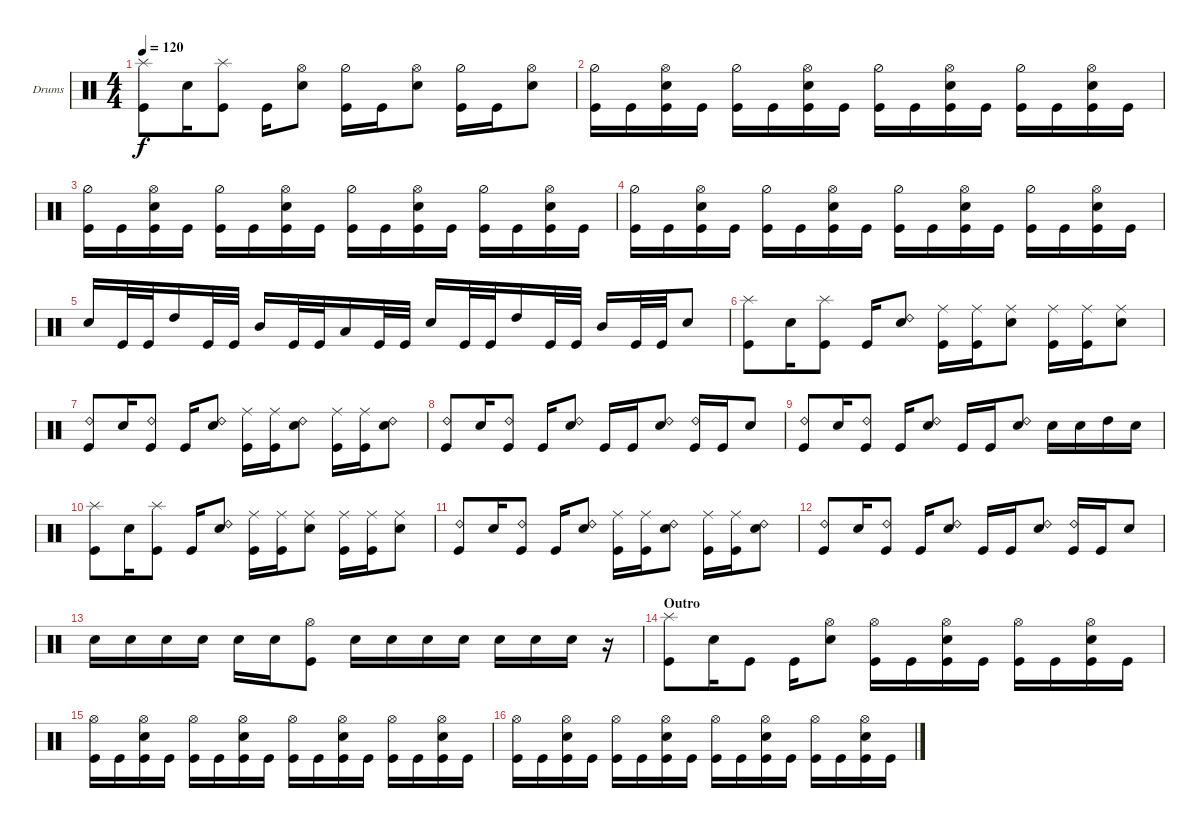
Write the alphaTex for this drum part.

\bracketExtendMode groupsimilarinstruments
\firstSystemTrackNameOrientation horizontal
\otherSystemsTrackNameOrientation horizontal
\track ("Drumkit" "Drums") {instrument percussion}
\staff {score}
\articulation defaults
\ts (4 4)
\tempo 120
\clef neutral
\ks c
("Kick (hit)" "Splash (hit)").8{dy f} "Snare (hit) 2".16 ("Kick (hit)" "Splash (hit)").8 "Kick (hit)".16 ("Snare (hit) 2" "Hi-Hat (open)").8 ("Kick (hit)" "Hi-Hat (half)").16 "Kick (hit)".16 ("Snare (hit) 2" "Hi-Hat (open)").8 ("Kick (hit)" "Hi-Hat (half)").16 "Kick (hit)".16 ("Snare (hit) 2" "Hi-Hat (open)").8 |
("Kick (hit)" "Hi-Hat (half)").16 "Kick (hit)".16 ("Snare (hit) 2" "Hi-Hat (open)" "Kick (hit)").16 "Kick (hit)".16 ("Kick (hit)" "Hi-Hat (half)").16 "Kick (hit)".16 ("Snare (hit) 2" "Hi-Hat (open)" "Kick (hit)").16 "Kick (hit)".16 ("Kick (hit)" "Hi-Hat (half)").16 "Kick (hit)".16 ("Snare (hit) 2" "Hi-Hat (open)" "Kick (hit)").16 "Kick (hit)".16 ("Kick (hit)" "Hi-Hat (half)").16 "Kick (hit)".16 ("Snare (hit) 2" "Hi-Hat (open)" "Kick (hit)").16 "Kick (hit)".16 |
("Kick (hit)" "Hi-Hat (half)").16 "Kick (hit)".16 ("Snare (hit) 2" "Hi-Hat (open)" "Kick (hit)").16 "Kick (hit)".16 ("Kick (hit)" "Hi-Hat (half)").16 "Kick (hit)".16 ("Snare (hit) 2" "Hi-Hat (open)" "Kick (hit)").16 "Kick (hit)".16 ("Kick (hit)" "Hi-Hat (half)").16 "Kick (hit)".16 ("Snare (hit) 2" "Hi-Hat (open)" "Kick (hit)").16 "Kick (hit)".16 ("Kick (hit)" "Hi-Hat (half)").16 "Kick (hit)".16 ("Snare (hit) 2" "Hi-Hat (open)" "Kick (hit)").16 "Kick (hit)".16 |
("Kick (hit)" "Hi-Hat (half)").16 "Kick (hit)".16 ("Snare (hit) 2" "Hi-Hat (open)" "Kick (hit)").16 "Kick (hit)".16 ("Kick (hit)" "Hi-Hat (half)").16 "Kick (hit)".16 ("Snare (hit) 2" "Hi-Hat (open)" "Kick (hit)").16 "Kick (hit)".16 ("Kick (hit)" "Hi-Hat (half)").16 "Kick (hit)".16 ("Snare (hit) 2" "Hi-Hat (open)" "Kick (hit)").16 "Kick (hit)".16 ("Kick (hit)" "Hi-Hat (half)").16 "Kick (hit)".16 ("Snare (hit) 2" "Hi-Hat (open)" "Kick (hit)").16 "Kick (hit)".16 |
"Snare (hit) 2".16 "Kick (hit)".32 "Kick (hit)".32 "High Tom (hit)".16 "Kick (hit)".32 "Kick (hit)".32 "Mid Tom (hit)".16 "Kick (hit)".32 "Kick (hit)".32 "Low Tom (hit)".16 "Kick (hit)".32 "Kick (hit)".32 "Snare (hit) 2".16 "Kick (hit)".32 "Kick (hit)".32 "High Tom (hit)".16 "Kick (hit)".32 "Kick (hit)".32 "Mid Tom (hit)".16 "Kick (hit)".32 "Kick (hit)".32 "Snare (hit) 2".8 |
("Kick (hit)" "Splash (hit)").8 "Snare (hit) 2".16 ("Kick (hit)" "Splash (hit)").8 "Kick (hit)".16 ("Snare (hit) 2" "Ride (bell) 2").8 ("Kick (hit)" "Ride (middle)").16 ("Kick (hit)" "Ride (middle)").16 ("Snare (hit) 2" "Ride (middle)").8 ("Kick (hit)" "Ride (middle)").16 ("Kick (hit)" "Ride (middle)").16 ("Snare (hit) 2" "Ride (middle)").8 |
("Kick (hit)" "Ride (bell) 2").8 "Snare (hit) 2".16 ("Kick (hit)" "Ride (bell) 2").8 "Kick (hit)".16 ("Snare (hit) 2" "Ride (bell) 2").8 ("Kick (hit)" "Ride (middle)").16 ("Kick (hit)" "Ride (middle)").16 ("Snare (hit) 2" "Ride (bell) 2").8 ("Kick (hit)" "Ride (middle)").16 ("Kick (hit)" "Ride (middle)").16 ("Snare (hit) 2" "Ride (bell) 2").8 |
("Kick (hit)" "Ride (bell) 2").8 "Snare (hit) 2".16 ("Kick (hit)" "Ride (bell) 2").8 "Kick (hit)".16 ("Snare (hit) 2" "Ride (bell) 2").8 "Kick (hit)".16 "Kick (hit)".16 ("Snare (hit) 2" "Ride (bell) 2").8 ("Kick (hit)" "Ride (bell) 2").16 "Kick (hit)".16 "Snare (hit) 2".8 |
("Kick (hit)" "Ride (bell) 2").8 "Snare (hit) 2".16 ("Kick (hit)" "Ride (bell) 2").8 "Kick (hit)".16 ("Snare (hit) 2" "Ride (bell) 2").8 "Kick (hit)".16 "Kick (hit)".16 ("Snare (hit) 2" "Ride (bell) 2").8 "Snare (hit) 2".16 "Snare (hit) 2".16 "High Tom (hit)".16 "Snare (hit) 2".16 |
("Kick (hit)" "Splash (hit)").8 "Snare (hit) 2".16 ("Kick (hit)" "Splash (hit)").8 "Kick (hit)".16 ("Snare (hit) 2" "Ride (bell) 2").8 ("Kick (hit)" "Ride (middle)").16 ("Kick (hit)" "Ride (middle)").16 ("Snare (hit) 2" "Ride (middle)").8 ("Kick (hit)" "Ride (middle)").16 ("Kick (hit)" "Ride (middle)").16 ("Snare (hit) 2" "Ride (middle)").8 |
("Kick (hit)" "Ride (bell) 2").8 "Snare (hit) 2".16 ("Kick (hit)" "Ride (bell) 2").8 "Kick (hit)".16 ("Snare (hit) 2" "Ride (bell) 2").8 ("Kick (hit)" "Ride (middle)").16 ("Kick (hit)" "Ride (middle)").16 ("Snare (hit) 2" "Ride (bell) 2").8 ("Kick (hit)" "Ride (middle)").16 ("Kick (hit)" "Ride (middle)").16 ("Snare (hit) 2" "Ride (bell) 2").8 |
("Kick (hit)" "Ride (bell) 2").8 "Snare (hit) 2".16 ("Kick (hit)" "Ride (bell) 2").8 "Kick (hit)".16 ("Snare (hit) 2" "Ride (bell) 2").8 "Kick (hit)".16 "Kick (hit)".16 ("Snare (hit) 2" "Ride (bell) 2").8 ("Kick (hit)" "Ride (bell) 2").16 "Kick (hit)".16 "Snare (hit) 2".8 |
"Snare (hit) 2".16 "Snare (hit) 2".16 "Snare (hit) 2".16 "Snare (hit) 2".16 "Snare (hit) 2".16 "Snare (hit) 2".16 ("Kick (hit)" "Hi-Hat (open)").8 "Snare (hit) 2".16 "Snare (hit) 2".16 "Snare (hit) 2".16 "Snare (hit) 2".16 "Snare (hit) 2".16 "Snare (hit) 2".16 "Snare (hit) 2".16 r.16 |
\section ("" "Outro")
("Kick (hit)" "Splash (hit)").8 "Snare (hit) 2".16 "Kick (hit)".8 "Kick (hit)".16 ("Snare (hit) 2" "Hi-Hat (open)").8 ("Kick (hit)" "Hi-Hat (open)").16 "Kick (hit)".16 ("Kick (hit)" "Snare (hit) 2" "Hi-Hat (open)").16 "Kick (hit)".16 ("Kick (hit)" "Hi-Hat (open)").16 "Kick (hit)".16 ("Kick (hit)" "Snare (hit) 2" "Hi-Hat (open)").16 "Kick (hit)".16 |
("Kick (hit)" "Hi-Hat (open)").16 "Kick (hit)".16 ("Kick (hit)" "Snare (hit) 2" "Hi-Hat (open)").16 "Kick (hit)".16 ("Kick (hit)" "Hi-Hat (open)").16 "Kick (hit)".16 ("Kick (hit)" "Snare (hit) 2" "Hi-Hat (open)").16 "Kick (hit)".16 ("Kick (hit)" "Hi-Hat (open)").16 "Kick (hit)".16 ("Kick (hit)" "Snare (hit) 2" "Hi-Hat (open)").16 "Kick (hit)".16 ("Kick (hit)" "Hi-Hat (open)").16 "Kick (hit)".16 ("Kick (hit)" "Snare (hit) 2" "Hi-Hat (open)").16 "Kick (hit)".16 |
("Kick (hit)" "Hi-Hat (open)").16 "Kick (hit)".16 ("Kick (hit)" "Snare (hit) 2" "Hi-Hat (open)").16 "Kick (hit)".16 ("Kick (hit)" "Hi-Hat (open)").16 "Kick (hit)".16 ("Kick (hit)" "Snare (hit) 2" "Hi-Hat (open)").16 "Kick (hit)".16 ("Kick (hit)" "Hi-Hat (open)").16 "Kick (hit)".16 ("Kick (hit)" "Snare (hit) 2" "Hi-Hat (open)").16 "Kick (hit)".16 ("Kick (hit)" "Hi-Hat (open)").16 "Kick (hit)".16 ("Kick (hit)" "Snare (hit) 2" "Hi-Hat (open)").16 "Kick (hit)".16
